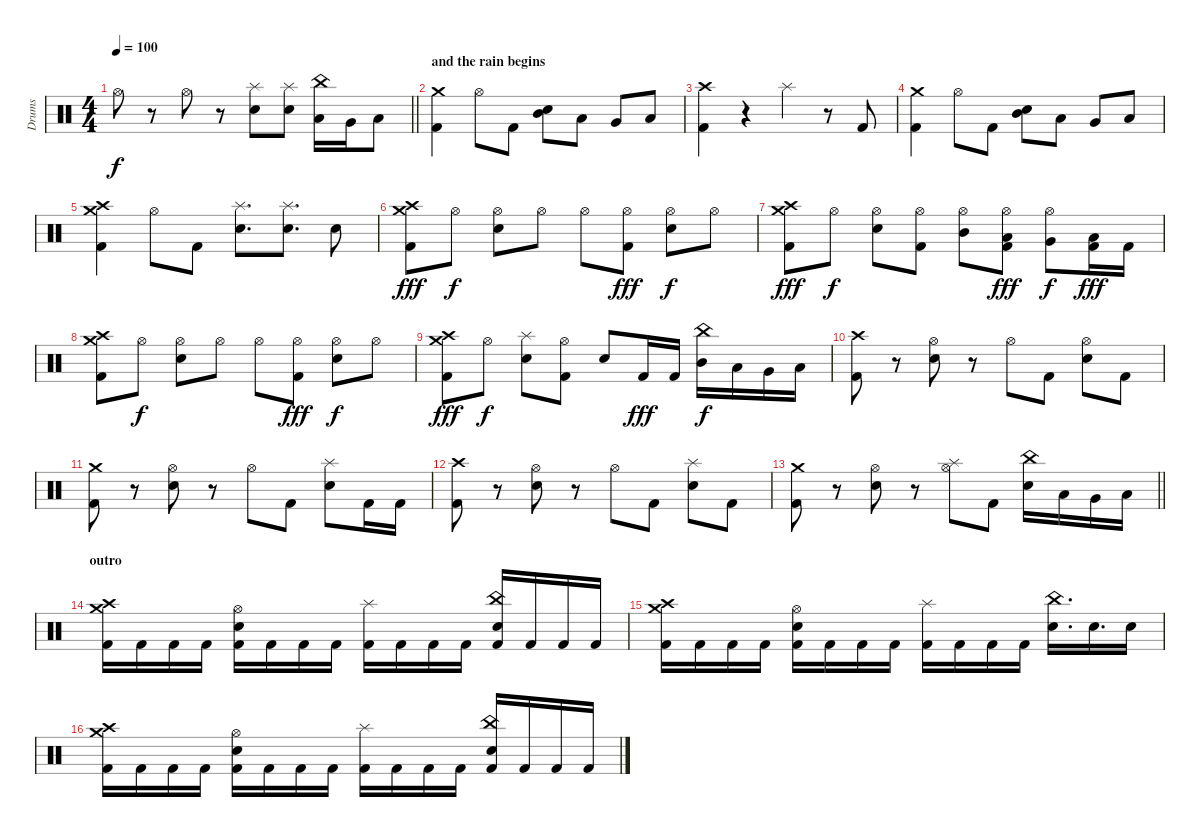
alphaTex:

\track ("Drums" "Drums") {instrument percussion}
\staff {score}
\articulation defaults
\ts (4 4)
\tempo 100
\clef neutral
\barLineRight lightlight
\ks c "Hi-Hat (open)".8{dy f}
r.8 "Hi-Hat (open)".8 r.8 ("Electric Snare (hit)" "Splash (hit)").8 ("Electric Snare (hit)" "Splash (hit)").8 ("Low Tom (hit)" "China (hit)").16 "Very Low Tom (hit)".16 "Low Floor Tom (hit)".8 |
\section ("" "and the rain begins")
("Kick (hit) 2" "Crash medium (hit)").4 "Hi-Hat (open)".8 "Kick (hit) 2".8 ("Mid Tom (hit)" "Electric Snare (hit)").8 "Low Tom (hit)".8 "Very Low Tom (hit)".8 "Low Floor Tom (hit)".8 |
("Kick (hit) 2" "Crash high (hit)").4 r.4 "Splash (hit)".4 r.8 "Kick (hit) 2".8 |
("Kick (hit) 2" "Crash medium (hit)").4 "Hi-Hat (open)".8 "Kick (hit) 2".8 ("Mid Tom (hit)" "Electric Snare (hit)").8 "Low Tom (hit)".8 "Very Low Tom (hit)".8 "Low Floor Tom (hit)".8 |
("Kick (hit) 2" "Crash high (hit)" "Crash medium (hit)").4 "Hi-Hat (open)".8 "Kick (hit) 2".8 ("Electric Snare (hit)" "Splash (hit)").8{d} ("Electric Snare (hit)" "Splash (hit)").8{d} "Electric Snare (hit)".8 |
("Kick (hit) 2" "Crash high (hit)" "Crash medium (hit)").8{dy fff} "Hi-Hat (open)".8{dy f} ("Electric Snare (hit)" "Hi-Hat (open)").8 "Hi-Hat (open)".8 "Hi-Hat (open)".8 ("Kick (hit) 2" "Hi-Hat (open)").8{dy fff} ("Electric Snare (hit)" "Hi-Hat (open)").8{dy f} "Hi-Hat (open)".8 |
("Kick (hit) 2" "Crash high (hit)" "Crash medium (hit)").8{dy fff} "Hi-Hat (open)".8{dy f} ("Electric Snare (hit)" "Hi-Hat (open)").8 ("Kick (hit) 2" "Hi-Hat (open)").8 ("Mid Tom (hit)" "Hi-Hat (open)").8 ("Kick (hit) 2" "Low Tom (hit)" "Hi-Hat (open)").8{dy fff} ("Very Low Tom (hit)" "Hi-Hat (open)").8{dy f} ("Kick (hit) 2" "Low Floor Tom (hit)").16{dy fff} "Kick (hit) 2".16 |
("Kick (hit) 2" "Crash high (hit)" "Crash medium (hit)").8 "Hi-Hat (open)".8{dy f} ("Electric Snare (hit)" "Hi-Hat (open)").8 "Hi-Hat (open)".8 "Hi-Hat (open)".8 ("Kick (hit) 2" "Hi-Hat (open)").8{dy fff} ("Electric Snare (hit)" "Hi-Hat (open)").8{dy f} "Hi-Hat (open)".8 |
("Kick (hit) 2" "Crash high (hit)" "Crash medium (hit)").8{dy fff} "Hi-Hat (open)".8{dy f} ("Electric Snare (hit)" "Splash (hit)").8 ("Kick (hit) 2" "Hi-Hat (open)").8 "Electric Snare (hit)".8 "Kick (hit) 2".16{dy fff} "Kick (hit) 2".16 ("Mid Tom (hit)" "China (hit)").16{dy f} "Low Tom (hit)".16 "Very Low Tom (hit)".16 "Low Floor Tom (hit)".16 |
("Kick (hit) 2" "Crash high (hit)").8 r.8 ("Electric Snare (hit)" "Hi-Hat (open)").8 r.8 "Hi-Hat (open)".8 "Kick (hit) 2".8 ("Electric Snare (hit)" "Hi-Hat (open)").8 "Kick (hit) 2".8 |
("Kick (hit) 2" "Crash medium (hit)").8 r.8 ("Electric Snare (hit)" "Hi-Hat (open)").8 r.8 "Hi-Hat (open)".8 "Kick (hit) 2".8 ("Electric Snare (hit)" "Splash (hit)").8 "Kick (hit) 2".16 "Kick (hit) 2".16 |
("Kick (hit) 2" "Crash high (hit)").8 r.8 ("Electric Snare (hit)" "Hi-Hat (open)").8 r.8 "Hi-Hat (open)".8 "Kick (hit) 2".8 ("Electric Snare (hit)" "Splash (hit)").8 "Kick (hit) 2".8 |
\barLineRight lightlight
("Kick (hit) 2" "Crash medium (hit)").8 r.8 ("Electric Snare (hit)" "Hi-Hat (open)").8 r.8 ("Hi-Hat (open)" "Splash (hit)").8 "Kick (hit) 2".8 ("Electric Snare (hit)" "China (hit)").16 "Low Tom (hit)".16 "Very Low Tom (hit)".16 "Low Floor Tom (hit)".16 |
\section ("" "outro")
("Kick (hit) 2" "Crash high (hit)" "Crash medium (hit)").16 "Kick (hit) 2".16 "Kick (hit) 2".16 "Kick (hit) 2".16 ("Kick (hit) 2" "Electric Snare (hit)" "Hi-Hat (open)").16 "Kick (hit) 2".16 "Kick (hit) 2".16 "Kick (hit) 2".16 ("Kick (hit) 2" "Splash (hit)").16 "Kick (hit) 2".16 "Kick (hit) 2".16 "Kick (hit) 2".16 ("Kick (hit) 2" "Electric Snare (hit)" "China (hit)").16 "Kick (hit) 2".16 "Kick (hit) 2".16 "Kick (hit) 2".16 |
("Kick (hit) 2" "Crash high (hit)" "Crash medium (hit)").16 "Kick (hit) 2".16 "Kick (hit) 2".16 "Kick (hit) 2".16 ("Kick (hit) 2" "Electric Snare (hit)" "Hi-Hat (open)").16 "Kick (hit) 2".16 "Kick (hit) 2".16 "Kick (hit) 2".16 ("Kick (hit) 2" "Splash (hit)").16 "Kick (hit) 2".16 "Kick (hit) 2".16 "Kick (hit) 2".16 ("Electric Snare (hit)" "China (hit)").16{d} "Electric Snare (hit)".16{d} "Electric Snare (hit)".16 |
("Kick (hit) 2" "Crash high (hit)" "Crash medium (hit)").16 "Kick (hit) 2".16 "Kick (hit) 2".16 "Kick (hit) 2".16 ("Kick (hit) 2" "Electric Snare (hit)" "Hi-Hat (open)").16 "Kick (hit) 2".16 "Kick (hit) 2".16 "Kick (hit) 2".16 ("Kick (hit) 2" "Splash (hit)").16 "Kick (hit) 2".16 "Kick (hit) 2".16 "Kick (hit) 2".16 ("Kick (hit) 2" "Electric Snare (hit)" "China (hit)").16 "Kick (hit) 2".16 "Kick (hit) 2".16 "Kick (hit) 2".16
